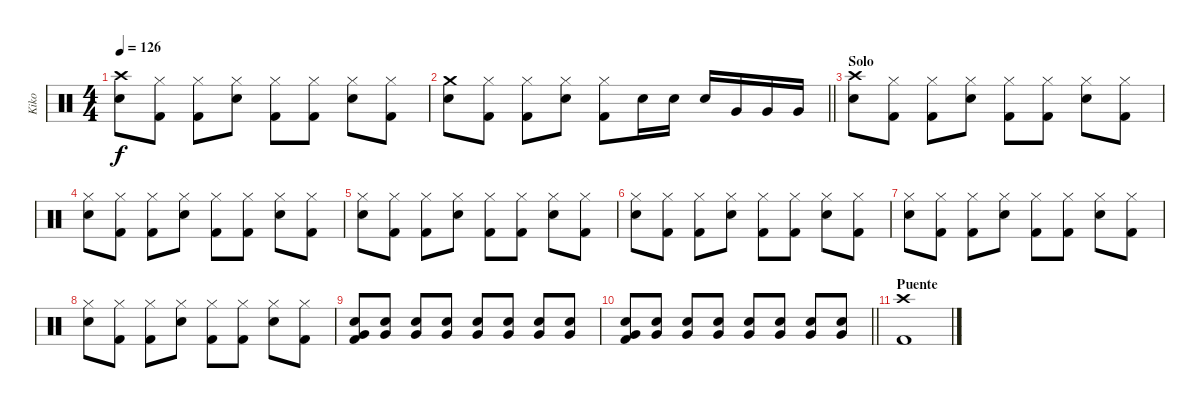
\track ("Kiko" "Kiko") {instrument percussion}
\staff {score}
\articulation defaults
\ts (4 4)
\tempo 126
\clef neutral
\ks c
("Crash high (hit)" "Electric Snare (hit)").8{dy f} ("Hi-Hat (closed)" "Kick (hit) 2").8 ("Hi-Hat (closed)" "Kick (hit) 2").8 ("Hi-Hat (closed)" "Electric Snare (hit)").8 ("Hi-Hat (closed)" "Kick (hit) 2").8 ("Hi-Hat (closed)" "Kick (hit) 2").8 ("Hi-Hat (closed)" "Electric Snare (hit)").8 ("Hi-Hat (closed)" "Kick (hit) 2").8 |
\barLineRight lightlight
("Crash medium (hit)" "Electric Snare (hit)").8 ("Hi-Hat (closed)" "Kick (hit) 2").8 ("Hi-Hat (closed)" "Kick (hit) 2").8 ("Hi-Hat (closed)" "Electric Snare (hit)").8 ("Hi-Hat (closed)" "Kick (hit) 2").8 "Electric Snare (hit)".16 "Electric Snare (hit)".16 "Electric Snare (hit)".16 "Very Low Tom (hit)".16 "Very Low Tom (hit)".16 "Very Low Tom (hit)".16 |
\section ("" "Solo")
("Crash high (hit)" "Electric Snare (hit)").8 ("Hi-Hat (closed)" "Kick (hit) 2").8 ("Hi-Hat (closed)" "Kick (hit) 2").8 ("Hi-Hat (closed)" "Electric Snare (hit)").8 ("Hi-Hat (closed)" "Kick (hit) 2").8 ("Hi-Hat (closed)" "Kick (hit) 2").8 ("Hi-Hat (closed)" "Electric Snare (hit)").8 ("Hi-Hat (closed)" "Kick (hit) 2").8 |
("Hi-Hat (closed)" "Electric Snare (hit)").8 ("Hi-Hat (closed)" "Kick (hit) 2").8 ("Hi-Hat (closed)" "Kick (hit) 2").8 ("Hi-Hat (closed)" "Electric Snare (hit)").8 ("Hi-Hat (closed)" "Kick (hit) 2").8 ("Hi-Hat (closed)" "Kick (hit) 2").8 ("Hi-Hat (closed)" "Electric Snare (hit)").8 ("Hi-Hat (closed)" "Kick (hit) 2").8 |
("Hi-Hat (closed)" "Electric Snare (hit)").8 ("Hi-Hat (closed)" "Kick (hit) 2").8 ("Hi-Hat (closed)" "Kick (hit) 2").8 ("Hi-Hat (closed)" "Electric Snare (hit)").8 ("Hi-Hat (closed)" "Kick (hit) 2").8 ("Hi-Hat (closed)" "Kick (hit) 2").8 ("Hi-Hat (closed)" "Electric Snare (hit)").8 ("Hi-Hat (closed)" "Kick (hit) 2").8 |
("Hi-Hat (closed)" "Electric Snare (hit)").8 ("Hi-Hat (closed)" "Kick (hit) 2").8 ("Hi-Hat (closed)" "Kick (hit) 2").8 ("Hi-Hat (closed)" "Electric Snare (hit)").8 ("Hi-Hat (closed)" "Kick (hit) 2").8 ("Hi-Hat (closed)" "Kick (hit) 2").8 ("Hi-Hat (closed)" "Electric Snare (hit)").8 ("Hi-Hat (closed)" "Kick (hit) 2").8 |
("Hi-Hat (closed)" "Electric Snare (hit)").8 ("Hi-Hat (closed)" "Kick (hit) 2").8 ("Hi-Hat (closed)" "Kick (hit) 2").8 ("Hi-Hat (closed)" "Electric Snare (hit)").8 ("Hi-Hat (closed)" "Kick (hit) 2").8 ("Hi-Hat (closed)" "Kick (hit) 2").8 ("Hi-Hat (closed)" "Electric Snare (hit)").8 ("Hi-Hat (closed)" "Kick (hit) 2").8 |
("Hi-Hat (closed)" "Electric Snare (hit)").8 ("Hi-Hat (closed)" "Kick (hit) 2").8 ("Hi-Hat (closed)" "Kick (hit) 2").8 ("Hi-Hat (closed)" "Electric Snare (hit)").8 ("Hi-Hat (closed)" "Kick (hit) 2").8 ("Hi-Hat (closed)" "Kick (hit) 2").8 ("Hi-Hat (closed)" "Electric Snare (hit)").8 ("Hi-Hat (closed)" "Kick (hit) 2").8 |
("Very Low Tom (hit)" "Electric Snare (hit)" "Kick (hit) 2").8 ("Very Low Tom (hit)" "Electric Snare (hit)").8 ("Very Low Tom (hit)" "Electric Snare (hit)").8 ("Very Low Tom (hit)" "Electric Snare (hit)").8 ("Very Low Tom (hit)" "Electric Snare (hit)").8 ("Very Low Tom (hit)" "Electric Snare (hit)").8 ("Very Low Tom (hit)" "Electric Snare (hit)").8 ("Very Low Tom (hit)" "Electric Snare (hit)").8 |
\barLineRight lightlight
("Very Low Tom (hit)" "Electric Snare (hit)" "Kick (hit) 2").8 ("Very Low Tom (hit)" "Electric Snare (hit)").8 ("Very Low Tom (hit)" "Electric Snare (hit)").8 ("Very Low Tom (hit)" "Electric Snare (hit)").8 ("Very Low Tom (hit)" "Electric Snare (hit)").8 ("Very Low Tom (hit)" "Electric Snare (hit)").8 ("Very Low Tom (hit)" "Electric Snare (hit)").8 ("Very Low Tom (hit)" "Electric Snare (hit)").8 |
\section ("" "Puente")
("Crash high (hit)" "Kick (hit) 2").1
